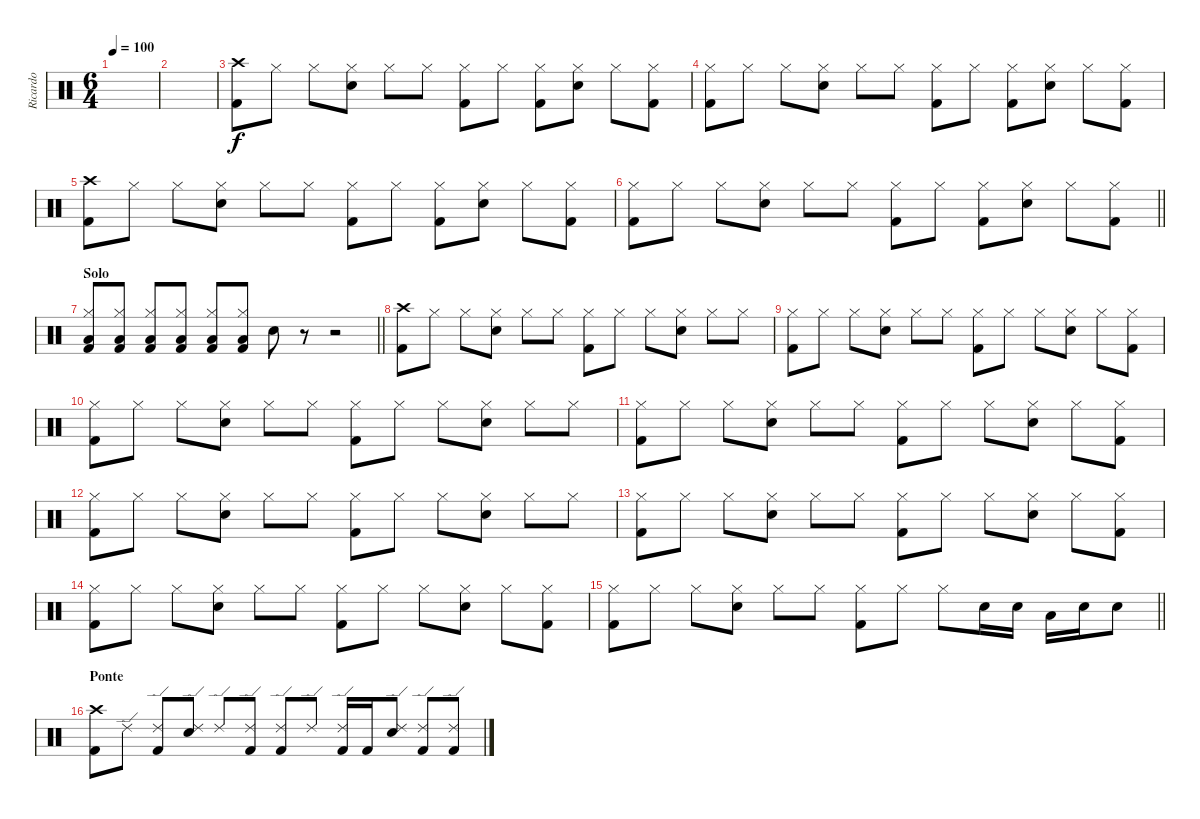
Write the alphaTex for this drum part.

\track ("Ricardo" "Ricardo") {instrument percussion}
\staff {score}
\articulation defaults
\ts (6 4)
\tempo 100
\clef neutral
\ks c
|
|
("Crash high (hit)" "Kick (hit) 2").8 "Hi-Hat (closed)".8 "Hi-Hat (closed)".8 ("Hi-Hat (closed)" "Electric Snare (hit)").8 "Hi-Hat (closed)".8 "Hi-Hat (closed)".8 ("Hi-Hat (closed)" "Kick (hit) 2").8 "Hi-Hat (closed)".8 ("Hi-Hat (closed)" "Kick (hit) 2").8 ("Hi-Hat (closed)" "Electric Snare (hit)").8 "Hi-Hat (closed)".8 ("Hi-Hat (closed)" "Kick (hit) 2").8 |
("Hi-Hat (closed)" "Kick (hit) 2").8 "Hi-Hat (closed)".8 "Hi-Hat (closed)".8 ("Hi-Hat (closed)" "Electric Snare (hit)").8 "Hi-Hat (closed)".8 "Hi-Hat (closed)".8 ("Hi-Hat (closed)" "Kick (hit) 2").8 "Hi-Hat (closed)".8 ("Hi-Hat (closed)" "Kick (hit) 2").8 ("Hi-Hat (closed)" "Electric Snare (hit)").8 "Hi-Hat (closed)".8 ("Hi-Hat (closed)" "Kick (hit) 2").8 |
("Crash high (hit)" "Kick (hit) 2").8 "Hi-Hat (closed)".8 "Hi-Hat (closed)".8 ("Hi-Hat (closed)" "Electric Snare (hit)").8 "Hi-Hat (closed)".8 "Hi-Hat (closed)".8 ("Hi-Hat (closed)" "Kick (hit) 2").8 "Hi-Hat (closed)".8 ("Hi-Hat (closed)" "Kick (hit) 2").8 ("Hi-Hat (closed)" "Electric Snare (hit)").8 "Hi-Hat (closed)".8 ("Hi-Hat (closed)" "Kick (hit) 2").8 |
\barLineRight lightlight
("Hi-Hat (closed)" "Kick (hit) 2").8 "Hi-Hat (closed)".8 "Hi-Hat (closed)".8 ("Hi-Hat (closed)" "Electric Snare (hit)").8 "Hi-Hat (closed)".8 "Hi-Hat (closed)".8 ("Hi-Hat (closed)" "Kick (hit) 2").8 "Hi-Hat (closed)".8 ("Hi-Hat (closed)" "Kick (hit) 2").8 ("Hi-Hat (closed)" "Electric Snare (hit)").8 "Hi-Hat (closed)".8 ("Hi-Hat (closed)" "Kick (hit) 2").8 |
\section ("" "Solo")
\barLineRight lightlight
("Hi-Hat (closed)" "Low Tom (hit)" "Kick (hit) 2").8 ("Hi-Hat (closed)" "Low Tom (hit)" "Kick (hit) 2").8 ("Hi-Hat (closed)" "Low Tom (hit)" "Kick (hit) 2").8 ("Hi-Hat (closed)" "Low Tom (hit)" "Kick (hit) 2").8 ("Hi-Hat (closed)" "Low Tom (hit)" "Kick (hit) 2").8 ("Hi-Hat (closed)" "Low Tom (hit)" "Kick (hit) 2").8 "Electric Snare (hit)".8 r.8 r.2 |
("Crash high (hit)" "Kick (hit) 2").8 "Hi-Hat (closed)".8 "Hi-Hat (closed)".8 ("Hi-Hat (closed)" "Electric Snare (hit)").8 "Hi-Hat (closed)".8 "Hi-Hat (closed)".8 ("Hi-Hat (closed)" "Kick (hit) 2").8 "Hi-Hat (closed)".8 "Hi-Hat (closed)".8 ("Hi-Hat (closed)" "Electric Snare (hit)").8 "Hi-Hat (closed)".8 "Hi-Hat (closed)".8 |
("Hi-Hat (closed)" "Kick (hit) 2").8 "Hi-Hat (closed)".8 "Hi-Hat (closed)".8 ("Hi-Hat (closed)" "Electric Snare (hit)").8 "Hi-Hat (closed)".8 "Hi-Hat (closed)".8 ("Hi-Hat (closed)" "Kick (hit) 2").8 "Hi-Hat (closed)".8 "Hi-Hat (closed)".8 ("Hi-Hat (closed)" "Electric Snare (hit)").8 "Hi-Hat (closed)".8 ("Hi-Hat (closed)" "Kick (hit) 2").8 |
("Hi-Hat (closed)" "Kick (hit) 2").8 "Hi-Hat (closed)".8 "Hi-Hat (closed)".8 ("Hi-Hat (closed)" "Electric Snare (hit)").8 "Hi-Hat (closed)".8 "Hi-Hat (closed)".8 ("Hi-Hat (closed)" "Kick (hit) 2").8 "Hi-Hat (closed)".8 "Hi-Hat (closed)".8 ("Hi-Hat (closed)" "Electric Snare (hit)").8 "Hi-Hat (closed)".8 "Hi-Hat (closed)".8 |
("Hi-Hat (closed)" "Kick (hit) 2").8 "Hi-Hat (closed)".8 "Hi-Hat (closed)".8 ("Hi-Hat (closed)" "Electric Snare (hit)").8 "Hi-Hat (closed)".8 "Hi-Hat (closed)".8 ("Hi-Hat (closed)" "Kick (hit) 2").8 "Hi-Hat (closed)".8 "Hi-Hat (closed)".8 ("Hi-Hat (closed)" "Electric Snare (hit)").8 "Hi-Hat (closed)".8 ("Hi-Hat (closed)" "Kick (hit) 2").8 |
("Hi-Hat (closed)" "Kick (hit) 2").8 "Hi-Hat (closed)".8 "Hi-Hat (closed)".8 ("Hi-Hat (closed)" "Electric Snare (hit)").8 "Hi-Hat (closed)".8 "Hi-Hat (closed)".8 ("Hi-Hat (closed)" "Kick (hit) 2").8 "Hi-Hat (closed)".8 "Hi-Hat (closed)".8 ("Hi-Hat (closed)" "Electric Snare (hit)").8 "Hi-Hat (closed)".8 "Hi-Hat (closed)".8 |
("Hi-Hat (closed)" "Kick (hit) 2").8 "Hi-Hat (closed)".8 "Hi-Hat (closed)".8 ("Hi-Hat (closed)" "Electric Snare (hit)").8 "Hi-Hat (closed)".8 "Hi-Hat (closed)".8 ("Hi-Hat (closed)" "Kick (hit) 2").8 "Hi-Hat (closed)".8 "Hi-Hat (closed)".8 ("Hi-Hat (closed)" "Electric Snare (hit)").8 "Hi-Hat (closed)".8 ("Hi-Hat (closed)" "Kick (hit) 2").8 |
("Hi-Hat (closed)" "Kick (hit) 2").8 "Hi-Hat (closed)".8 "Hi-Hat (closed)".8 ("Hi-Hat (closed)" "Electric Snare (hit)").8 "Hi-Hat (closed)".8 "Hi-Hat (closed)".8 ("Hi-Hat (closed)" "Kick (hit) 2").8 "Hi-Hat (closed)".8 "Hi-Hat (closed)".8 ("Hi-Hat (closed)" "Electric Snare (hit)").8 "Hi-Hat (closed)".8 ("Hi-Hat (closed)" "Kick (hit) 2").8 |
\barLineRight lightlight
("Hi-Hat (closed)" "Kick (hit) 2").8 "Hi-Hat (closed)".8 "Hi-Hat (closed)".8 ("Hi-Hat (closed)" "Electric Snare (hit)").8 "Hi-Hat (closed)".8 "Hi-Hat (closed)".8 ("Hi-Hat (closed)" "Kick (hit) 2").8 "Hi-Hat (closed)".8 "Hi-Hat (closed)".8 "Electric Snare (hit)".16 "Electric Snare (hit)".16 "Low Tom (hit)".16 "Electric Snare (hit)".16 "Electric Snare (hit)".8 |
\section ("" "Ponte")
("Crash high (hit)" "Kick (hit) 2").8 "Ride (edge) 2".8 ("Ride (edge) 2" "Kick (hit) 2").8 ("Ride (edge) 2" "Electric Snare (hit)").8 "Ride (edge) 2".8 ("Ride (edge) 2" "Kick (hit) 2").8 ("Ride (edge) 2" "Kick (hit) 2").8 "Ride (edge) 2".8 ("Ride (edge) 2" "Kick (hit) 2").16 "Kick (hit) 2".16 ("Ride (edge) 2" "Electric Snare (hit)").8 ("Ride (edge) 2" "Kick (hit) 2").8 ("Ride (edge) 2" "Kick (hit) 2").8
